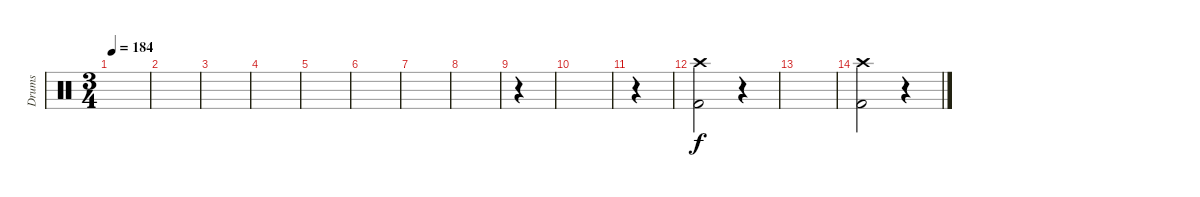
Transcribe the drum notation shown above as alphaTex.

\track ("Drums" "Drums") {instrument percussion}
\staff {score}
\articulation defaults
\ts (3 4)
\tempo 184
\clef neutral
\ks c
|
|
|
|
|
|
|
|
r.4 |
|
r.4 |
("Crash high (hit)" "Kick (hit) 2").2 r.4 |
|
("Crash high (hit)" "Kick (hit) 2").2 r.4
